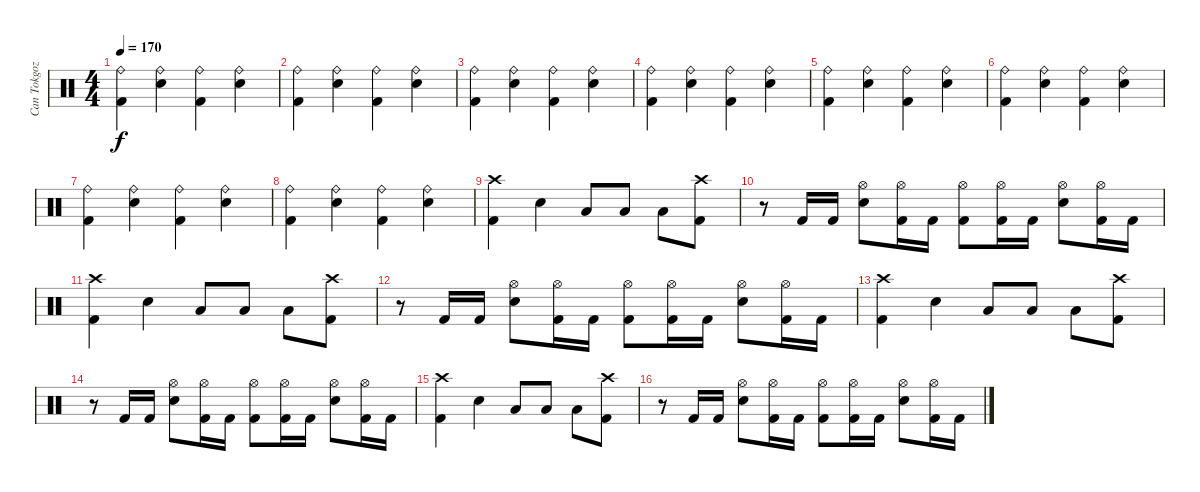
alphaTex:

\track ("Can Tokgoz" "Can Tokgoz") {instrument percussion}
\staff {score}
\articulation defaults
\ts (4 4)
\tempo 170
\clef neutral
\ks c
("Ride (bell)" "Kick (hit) 2").4{dy f} ("Ride (bell)" "Snare (hit) 2").4 ("Ride (bell)" "Kick (hit) 2").4 ("Ride (bell)" "Snare (hit) 2").4 |
("Ride (bell)" "Kick (hit) 2").4 ("Ride (bell)" "Snare (hit) 2").4 ("Ride (bell)" "Kick (hit) 2").4 ("Ride (bell)" "Snare (hit) 2").4 |
("Ride (bell)" "Kick (hit) 2").4 ("Ride (bell)" "Snare (hit) 2").4 ("Ride (bell)" "Kick (hit) 2").4 ("Ride (bell)" "Snare (hit) 2").4 |
("Ride (bell)" "Kick (hit) 2").4 ("Ride (bell)" "Snare (hit) 2").4 ("Ride (bell)" "Kick (hit) 2").4 ("Ride (bell)" "Snare (hit) 2").4 |
("Ride (bell)" "Kick (hit) 2").4 ("Ride (bell)" "Snare (hit) 2").4 ("Ride (bell)" "Kick (hit) 2").4 ("Ride (bell)" "Snare (hit) 2").4 |
("Ride (bell)" "Kick (hit) 2").4 ("Ride (bell)" "Snare (hit) 2").4 ("Ride (bell)" "Kick (hit) 2").4 ("Ride (bell)" "Snare (hit) 2").4 |
("Ride (bell)" "Kick (hit) 2").4 ("Ride (bell)" "Snare (hit) 2").4 ("Ride (bell)" "Kick (hit) 2").4 ("Ride (bell)" "Snare (hit) 2").4 |
("Ride (bell)" "Kick (hit) 2").4 ("Ride (bell)" "Snare (hit) 2").4 ("Ride (bell)" "Kick (hit) 2").4 ("Ride (bell)" "Snare (hit) 2").4 |
("Crash high (hit)" "Kick (hit) 2").4 "Snare (hit) 2".4 "Low Tom (hit)".8 "Low Tom (hit)".8 "Low Tom (hit)".8 ("Crash high (hit)" "Kick (hit) 2").8 |
r.8 "Kick (hit) 2".16 "Kick (hit) 2".16 ("Hi-Hat (open)" "Snare (hit) 2").8 ("Hi-Hat (open)" "Kick (hit) 2").16 "Kick (hit) 2".16 ("Hi-Hat (open)" "Kick (hit) 2").8 ("Hi-Hat (open)" "Kick (hit) 2").16 "Kick (hit) 2".16 ("Hi-Hat (open)" "Snare (hit) 2").8 ("Hi-Hat (open)" "Kick (hit) 2").16 "Kick (hit) 2".16 |
("Crash high (hit)" "Kick (hit) 2").4 "Snare (hit) 2".4 "Low Tom (hit)".8 "Low Tom (hit)".8 "Low Tom (hit)".8 ("Crash high (hit)" "Kick (hit) 2").8 |
r.8 "Kick (hit) 2".16 "Kick (hit) 2".16 ("Hi-Hat (open)" "Snare (hit) 2").8 ("Hi-Hat (open)" "Kick (hit) 2").16 "Kick (hit) 2".16 ("Hi-Hat (open)" "Kick (hit) 2").8 ("Hi-Hat (open)" "Kick (hit) 2").16 "Kick (hit) 2".16 ("Hi-Hat (open)" "Snare (hit) 2").8 ("Hi-Hat (open)" "Kick (hit) 2").16 "Kick (hit) 2".16 |
("Crash high (hit)" "Kick (hit) 2").4 "Snare (hit) 2".4 "Low Tom (hit)".8 "Low Tom (hit)".8 "Low Tom (hit)".8 ("Crash high (hit)" "Kick (hit) 2").8 |
r.8 "Kick (hit) 2".16 "Kick (hit) 2".16 ("Hi-Hat (open)" "Snare (hit) 2").8 ("Hi-Hat (open)" "Kick (hit) 2").16 "Kick (hit) 2".16 ("Hi-Hat (open)" "Kick (hit) 2").8 ("Hi-Hat (open)" "Kick (hit) 2").16 "Kick (hit) 2".16 ("Hi-Hat (open)" "Snare (hit) 2").8 ("Hi-Hat (open)" "Kick (hit) 2").16 "Kick (hit) 2".16 |
("Crash high (hit)" "Kick (hit) 2").4 "Snare (hit) 2".4 "Low Tom (hit)".8 "Low Tom (hit)".8 "Low Tom (hit)".8 ("Crash high (hit)" "Kick (hit) 2").8 |
r.8 "Kick (hit) 2".16 "Kick (hit) 2".16 ("Hi-Hat (open)" "Snare (hit) 2").8 ("Hi-Hat (open)" "Kick (hit) 2").16 "Kick (hit) 2".16 ("Hi-Hat (open)" "Kick (hit) 2").8 ("Hi-Hat (open)" "Kick (hit) 2").16 "Kick (hit) 2".16 ("Hi-Hat (open)" "Snare (hit) 2").8 ("Hi-Hat (open)" "Kick (hit) 2").16 "Kick (hit) 2".16
